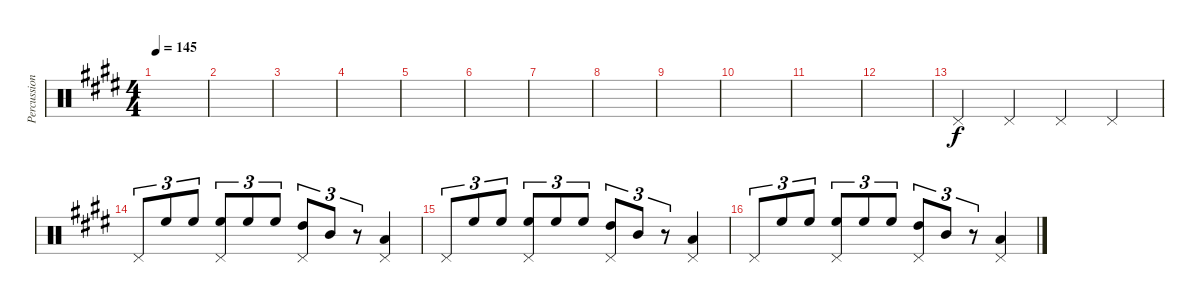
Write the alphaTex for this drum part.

\track ("Percussions" "Percussion") {solo instrument percussion}
\staff {score}
\articulation defaults
\ts (4 4)
\tempo 145
\clef neutral
\ks e
|
|
|
|
|
|
|
|
|
|
|
|
"Pedal Hi-Hat (hit)".4 "Pedal Hi-Hat (hit)".4 "Pedal Hi-Hat (hit)".4 "Pedal Hi-Hat (hit)".4 |
"Pedal Hi-Hat (hit)".8{tu (3 2)} "High Floor Tom (hit)".8{tu (3 2)} "High Floor Tom (hit)".8{tu (3 2)} ("High Floor Tom (hit)" "Pedal Hi-Hat (hit)").8{tu (3 2)} "High Floor Tom (hit)".8{tu (3 2)} "High Floor Tom (hit)".8{tu (3 2)} ("High Tom (hit)" "Pedal Hi-Hat (hit)").8{tu (3 2)} "Mid Tom (hit)".8{tu (3 2)} r.8{tu (3 2)} ("Low Tom (hit)" "Pedal Hi-Hat (hit)").4 |
"Pedal Hi-Hat (hit)".8{tu (3 2)} "High Floor Tom (hit)".8{tu (3 2)} "High Floor Tom (hit)".8{tu (3 2)} ("High Floor Tom (hit)" "Pedal Hi-Hat (hit)").8{tu (3 2)} "High Floor Tom (hit)".8{tu (3 2)} "High Floor Tom (hit)".8{tu (3 2)} ("High Tom (hit)" "Pedal Hi-Hat (hit)").8{tu (3 2)} "Mid Tom (hit)".8{tu (3 2)} r.8{tu (3 2)} ("Low Tom (hit)" "Pedal Hi-Hat (hit)").4 |
"Pedal Hi-Hat (hit)".8{tu (3 2)} "High Floor Tom (hit)".8{tu (3 2)} "High Floor Tom (hit)".8{tu (3 2)} ("High Floor Tom (hit)" "Pedal Hi-Hat (hit)").8{tu (3 2)} "High Floor Tom (hit)".8{tu (3 2)} "High Floor Tom (hit)".8{tu (3 2)} ("High Tom (hit)" "Pedal Hi-Hat (hit)").8{tu (3 2)} "Mid Tom (hit)".8{tu (3 2)} r.8{tu (3 2)} ("Low Tom (hit)" "Pedal Hi-Hat (hit)").4
